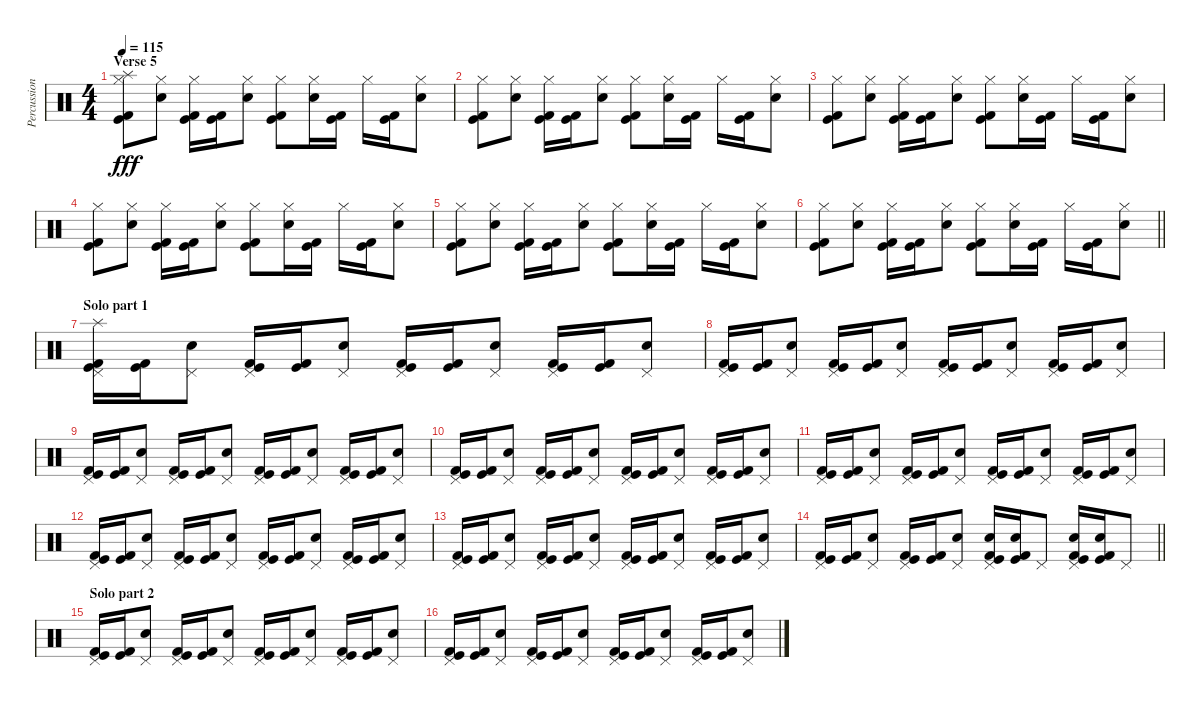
\track ("Percussion" "Percussion") {instrument percussion}
\staff {score}
\articulation defaults
\ts (4 4)
\section ("" "Verse 5")
\tempo 115
\clef neutral
\ks c
("Splash (hit)" "Hi-Hat (closed)" "Kick (hit)" "Kick (hit) 2").8{dy fff} ("Snare (hit) 2" "Hi-Hat (closed)").8 ("Hi-Hat (closed)" "Kick (hit)" "Kick (hit) 2").16 ("Kick (hit)" "Kick (hit) 2").16 ("Snare (hit) 2" "Hi-Hat (closed)").8 ("Hi-Hat (closed)" "Kick (hit)" "Kick (hit) 2").8 ("Snare (hit) 2" "Hi-Hat (closed)").16 ("Kick (hit)" "Kick (hit) 2").16 "Hi-Hat (closed)".16 ("Kick (hit)" "Kick (hit) 2").16 ("Snare (hit) 2" "Hi-Hat (closed)").8 |
("Hi-Hat (closed)" "Kick (hit)" "Kick (hit) 2").8 ("Snare (hit) 2" "Hi-Hat (closed)").8 ("Hi-Hat (closed)" "Kick (hit)" "Kick (hit) 2").16 ("Kick (hit)" "Kick (hit) 2").16 ("Snare (hit) 2" "Hi-Hat (closed)").8 ("Hi-Hat (closed)" "Kick (hit)" "Kick (hit) 2").8 ("Snare (hit) 2" "Hi-Hat (closed)").16 ("Kick (hit)" "Kick (hit) 2").16 "Hi-Hat (closed)".16 ("Kick (hit)" "Kick (hit) 2").16 ("Snare (hit) 2" "Hi-Hat (closed)").8 |
("Hi-Hat (closed)" "Kick (hit)" "Kick (hit) 2").8 ("Snare (hit) 2" "Hi-Hat (closed)").8 ("Hi-Hat (closed)" "Kick (hit)" "Kick (hit) 2").16 ("Kick (hit)" "Kick (hit) 2").16 ("Snare (hit) 2" "Hi-Hat (closed)").8 ("Hi-Hat (closed)" "Kick (hit)" "Kick (hit) 2").8 ("Snare (hit) 2" "Hi-Hat (closed)").16 ("Kick (hit)" "Kick (hit) 2").16 "Hi-Hat (closed)".16 ("Kick (hit)" "Kick (hit) 2").16 ("Snare (hit) 2" "Hi-Hat (closed)").8 |
("Hi-Hat (closed)" "Kick (hit)" "Kick (hit) 2").8 ("Snare (hit) 2" "Hi-Hat (closed)").8 ("Hi-Hat (closed)" "Kick (hit)" "Kick (hit) 2").16 ("Kick (hit)" "Kick (hit) 2").16 ("Snare (hit) 2" "Hi-Hat (closed)").8 ("Hi-Hat (closed)" "Kick (hit)" "Kick (hit) 2").8 ("Snare (hit) 2" "Hi-Hat (closed)").16 ("Kick (hit)" "Kick (hit) 2").16 "Hi-Hat (closed)".16 ("Kick (hit)" "Kick (hit) 2").16 ("Snare (hit) 2" "Hi-Hat (closed)").8 |
("Hi-Hat (closed)" "Kick (hit)" "Kick (hit) 2").8 ("Snare (hit) 2" "Hi-Hat (closed)").8 ("Hi-Hat (closed)" "Kick (hit)" "Kick (hit) 2").16 ("Kick (hit)" "Kick (hit) 2").16 ("Snare (hit) 2" "Hi-Hat (closed)").8 ("Hi-Hat (closed)" "Kick (hit)" "Kick (hit) 2").8 ("Snare (hit) 2" "Hi-Hat (closed)").16 ("Kick (hit)" "Kick (hit) 2").16 "Hi-Hat (closed)".16 ("Kick (hit)" "Kick (hit) 2").16 ("Snare (hit) 2" "Hi-Hat (closed)").8 |
\barLineRight lightlight
("Hi-Hat (closed)" "Kick (hit)" "Kick (hit) 2").8 ("Snare (hit) 2" "Hi-Hat (closed)").8 ("Hi-Hat (closed)" "Kick (hit)" "Kick (hit) 2").16 ("Kick (hit)" "Kick (hit) 2").16 ("Snare (hit) 2" "Hi-Hat (closed)").8 ("Hi-Hat (closed)" "Kick (hit)" "Kick (hit) 2").8 ("Snare (hit) 2" "Hi-Hat (closed)").16 ("Kick (hit)" "Kick (hit) 2").16 "Hi-Hat (closed)".16 ("Kick (hit)" "Kick (hit) 2").16 ("Snare (hit) 2" "Hi-Hat (closed)").8 |
\section ("" "Solo part 1")
("Splash (hit)" "Pedal Hi-Hat (hit)" "Kick (hit)" "Kick (hit) 2").16 ("Kick (hit)" "Kick (hit) 2").16 ("Snare (hit) 2" "Pedal Hi-Hat (hit)").8 ("Pedal Hi-Hat (hit)" "Kick (hit)" "Kick (hit) 2").16 ("Kick (hit)" "Kick (hit) 2").16 ("Snare (hit) 2" "Pedal Hi-Hat (hit)").8 ("Pedal Hi-Hat (hit)" "Kick (hit)" "Kick (hit) 2").16 ("Kick (hit)" "Kick (hit) 2").16 ("Snare (hit) 2" "Pedal Hi-Hat (hit)").8 ("Pedal Hi-Hat (hit)" "Kick (hit)" "Kick (hit) 2").16 ("Kick (hit)" "Kick (hit) 2").16 ("Snare (hit) 2" "Pedal Hi-Hat (hit)").8 |
("Pedal Hi-Hat (hit)" "Kick (hit)" "Kick (hit) 2").16 ("Kick (hit)" "Kick (hit) 2").16 ("Snare (hit) 2" "Pedal Hi-Hat (hit)").8 ("Pedal Hi-Hat (hit)" "Kick (hit)" "Kick (hit) 2").16 ("Kick (hit)" "Kick (hit) 2").16 ("Snare (hit) 2" "Pedal Hi-Hat (hit)").8 ("Pedal Hi-Hat (hit)" "Kick (hit)" "Kick (hit) 2").16 ("Kick (hit)" "Kick (hit) 2").16 ("Snare (hit) 2" "Pedal Hi-Hat (hit)").8 ("Pedal Hi-Hat (hit)" "Kick (hit)" "Kick (hit) 2").16 ("Kick (hit)" "Kick (hit) 2").16 ("Snare (hit) 2" "Pedal Hi-Hat (hit)").8 |
("Pedal Hi-Hat (hit)" "Kick (hit)" "Kick (hit) 2").16 ("Kick (hit)" "Kick (hit) 2").16 ("Snare (hit) 2" "Pedal Hi-Hat (hit)").8 ("Pedal Hi-Hat (hit)" "Kick (hit)" "Kick (hit) 2").16 ("Kick (hit)" "Kick (hit) 2").16 ("Snare (hit) 2" "Pedal Hi-Hat (hit)").8 ("Pedal Hi-Hat (hit)" "Kick (hit)" "Kick (hit) 2").16 ("Kick (hit)" "Kick (hit) 2").16 ("Snare (hit) 2" "Pedal Hi-Hat (hit)").8 ("Pedal Hi-Hat (hit)" "Kick (hit)" "Kick (hit) 2").16 ("Kick (hit)" "Kick (hit) 2").16 ("Snare (hit) 2" "Pedal Hi-Hat (hit)").8 |
("Pedal Hi-Hat (hit)" "Kick (hit)" "Kick (hit) 2").16 ("Kick (hit)" "Kick (hit) 2").16 ("Snare (hit) 2" "Pedal Hi-Hat (hit)").8 ("Pedal Hi-Hat (hit)" "Kick (hit)" "Kick (hit) 2").16 ("Kick (hit)" "Kick (hit) 2").16 ("Snare (hit) 2" "Pedal Hi-Hat (hit)").8 ("Pedal Hi-Hat (hit)" "Kick (hit)" "Kick (hit) 2").16 ("Kick (hit)" "Kick (hit) 2").16 ("Snare (hit) 2" "Pedal Hi-Hat (hit)").8 ("Pedal Hi-Hat (hit)" "Kick (hit)" "Kick (hit) 2").16 ("Kick (hit)" "Kick (hit) 2").16 ("Snare (hit) 2" "Pedal Hi-Hat (hit)").8 |
("Pedal Hi-Hat (hit)" "Kick (hit)" "Kick (hit) 2").16 ("Kick (hit)" "Kick (hit) 2").16 ("Snare (hit) 2" "Pedal Hi-Hat (hit)").8 ("Pedal Hi-Hat (hit)" "Kick (hit)" "Kick (hit) 2").16 ("Kick (hit)" "Kick (hit) 2").16 ("Snare (hit) 2" "Pedal Hi-Hat (hit)").8 ("Pedal Hi-Hat (hit)" "Kick (hit)" "Kick (hit) 2").16 ("Kick (hit)" "Kick (hit) 2").16 ("Snare (hit) 2" "Pedal Hi-Hat (hit)").8 ("Pedal Hi-Hat (hit)" "Kick (hit)" "Kick (hit) 2").16 ("Kick (hit)" "Kick (hit) 2").16 ("Snare (hit) 2" "Pedal Hi-Hat (hit)").8 |
("Pedal Hi-Hat (hit)" "Kick (hit)" "Kick (hit) 2").16 ("Kick (hit)" "Kick (hit) 2").16 ("Snare (hit) 2" "Pedal Hi-Hat (hit)").8 ("Pedal Hi-Hat (hit)" "Kick (hit)" "Kick (hit) 2").16 ("Kick (hit)" "Kick (hit) 2").16 ("Snare (hit) 2" "Pedal Hi-Hat (hit)").8 ("Pedal Hi-Hat (hit)" "Kick (hit)" "Kick (hit) 2").16 ("Kick (hit)" "Kick (hit) 2").16 ("Snare (hit) 2" "Pedal Hi-Hat (hit)").8 ("Pedal Hi-Hat (hit)" "Kick (hit)" "Kick (hit) 2").16 ("Kick (hit)" "Kick (hit) 2").16 ("Snare (hit) 2" "Pedal Hi-Hat (hit)").8 |
("Pedal Hi-Hat (hit)" "Kick (hit)" "Kick (hit) 2").16 ("Kick (hit)" "Kick (hit) 2").16 ("Snare (hit) 2" "Pedal Hi-Hat (hit)").8 ("Pedal Hi-Hat (hit)" "Kick (hit)" "Kick (hit) 2").16 ("Kick (hit)" "Kick (hit) 2").16 ("Snare (hit) 2" "Pedal Hi-Hat (hit)").8 ("Pedal Hi-Hat (hit)" "Kick (hit)" "Kick (hit) 2").16 ("Kick (hit)" "Kick (hit) 2").16 ("Snare (hit) 2" "Pedal Hi-Hat (hit)").8 ("Pedal Hi-Hat (hit)" "Kick (hit)" "Kick (hit) 2").16 ("Kick (hit)" "Kick (hit) 2").16 ("Snare (hit) 2" "Pedal Hi-Hat (hit)").8 |
\barLineRight lightlight
("Pedal Hi-Hat (hit)" "Kick (hit)" "Kick (hit) 2").16 ("Kick (hit)" "Kick (hit) 2").16 ("Snare (hit) 2" "Pedal Hi-Hat (hit)").8 ("Pedal Hi-Hat (hit)" "Kick (hit)" "Kick (hit) 2").16 ("Kick (hit)" "Kick (hit) 2").16 ("Snare (hit) 2" "Pedal Hi-Hat (hit)").8 ("Snare (hit) 2" "Pedal Hi-Hat (hit)" "Kick (hit)" "Kick (hit) 2").16 ("Snare (hit) 2" "Kick (hit)" "Kick (hit) 2").16 "Pedal Hi-Hat (hit)".8 ("Snare (hit) 2" "Pedal Hi-Hat (hit)" "Kick (hit)" "Kick (hit) 2").16 ("Snare (hit) 2" "Kick (hit)" "Kick (hit) 2").16 "Pedal Hi-Hat (hit)".8 |
\section ("" "Solo part 2")
("Pedal Hi-Hat (hit)" "Kick (hit)" "Kick (hit) 2").16 ("Kick (hit)" "Kick (hit) 2").16 ("Snare (hit) 2" "Pedal Hi-Hat (hit)").8 ("Pedal Hi-Hat (hit)" "Kick (hit)" "Kick (hit) 2").16 ("Kick (hit)" "Kick (hit) 2").16 ("Snare (hit) 2" "Pedal Hi-Hat (hit)").8 ("Pedal Hi-Hat (hit)" "Kick (hit)" "Kick (hit) 2").16 ("Kick (hit)" "Kick (hit) 2").16 ("Snare (hit) 2" "Pedal Hi-Hat (hit)").8 ("Pedal Hi-Hat (hit)" "Kick (hit)" "Kick (hit) 2").16 ("Kick (hit)" "Kick (hit) 2").16 ("Snare (hit) 2" "Pedal Hi-Hat (hit)").8 |
("Pedal Hi-Hat (hit)" "Kick (hit)" "Kick (hit) 2").16 ("Kick (hit)" "Kick (hit) 2").16 ("Snare (hit) 2" "Pedal Hi-Hat (hit)").8 ("Pedal Hi-Hat (hit)" "Kick (hit)" "Kick (hit) 2").16 ("Kick (hit)" "Kick (hit) 2").16 ("Snare (hit) 2" "Pedal Hi-Hat (hit)").8 ("Pedal Hi-Hat (hit)" "Kick (hit)" "Kick (hit) 2").16 ("Kick (hit)" "Kick (hit) 2").16 ("Snare (hit) 2" "Pedal Hi-Hat (hit)").8 ("Pedal Hi-Hat (hit)" "Kick (hit)" "Kick (hit) 2").16 ("Kick (hit)" "Kick (hit) 2").16 ("Snare (hit) 2" "Pedal Hi-Hat (hit)").8
